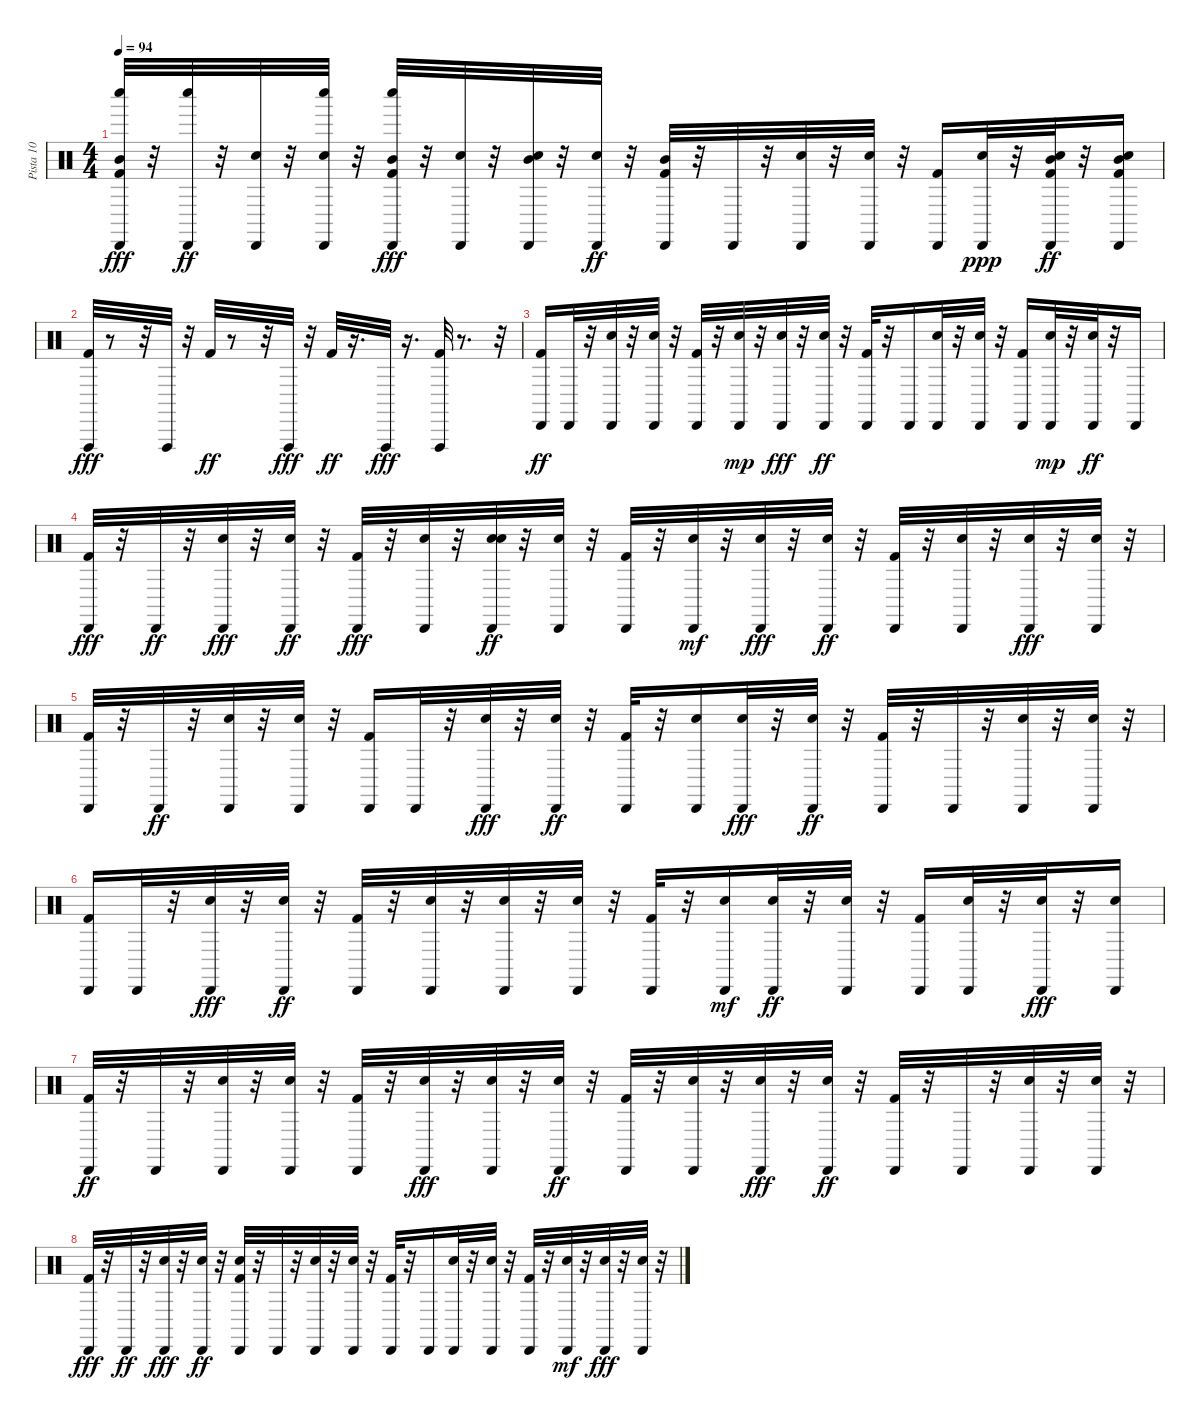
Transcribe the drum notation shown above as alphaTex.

\track ("Pista 10" "Pista 10") {instrument percussion}
\staff {score}
\articulation defaults
\ts (4 4)
\tempo 94
\clef neutral
\ks c
("Whistle low (hit)" "Cabasa (hit)" "Mid Tom (hit)" "Kick (hit) 2").32{dy fff} r.32 ("Whistle low (hit)" "Cabasa (hit)").32{dy ff} r.32 ("Snare (hit) 2" "Cabasa (hit)").32 r.32 ("Whistle low (hit)" "Electric Snare (hit)" "Cabasa (hit)").32 r.32 ("Whistle low (hit)" "Kick (hit) 2" "Mid Tom (hit)" "Cabasa (hit)").32{dy fff} r.32 ("Cabasa (hit)" "Electric Snare (hit)").32 r.32 ("Cabasa (hit)" "Mid Tom (hit)" "Snare (hit) 2").32 r.32 ("Cabasa (hit)" "Electric Snare (hit)").32{dy ff} r.32 ("Kick (hit) 2" "Mid Tom (hit)" "Cabasa (hit)").32 r.32 "Cabasa (hit)".32 r.32 ("Snare (hit) 2" "Cabasa (hit)").32 r.32 ("Cabasa (hit)" "Electric Snare (hit)").32 r.32 ("Cabasa (hit)" "Kick (hit) 2").16 ("Cabasa (hit)" "Electric Snare (hit)").32{dy ppp} r.32 ("Kick (hit) 2" "Snare (hit) 2" "Mid Tom (hit)" "Cabasa (hit)").32{dy ff} r.32 ("Kick (hit) 2" "Electric Snare (hit)" "Mid Tom (hit)" "Cabasa (hit)").16 |
("Kick (hit) 2" "Vibraslap (hit)").32{dy fff} r.8 r.32 "Vibraslap (hit)".32 r.32 "Kick (hit) 2".32{dy ff} r.8 r.32 "Vibraslap (hit)".32{dy fff} r.32 "Kick (hit) 2".32{dy ff} r.16{d} "Vibraslap (hit)".32{dy fff} r.16{d} ("Kick (hit) 2" "Vibraslap (hit)").32 r.8{d} r.32 |
("Cabasa (hit)" "Kick (hit) 2").16{dy ff} "Cabasa (hit)".32 r.32 ("Snare (hit) 2" "Cabasa (hit)").32 r.32 ("Electric Snare (hit)" "Cabasa (hit)").32 r.32 ("Kick (hit) 2" "Cabasa (hit)").32 r.32 ("Cabasa (hit)" "Electric Snare (hit)").32{dy mp} r.32 ("Cabasa (hit)" "Snare (hit) 2").32{dy fff} r.32 ("Cabasa (hit)" "Electric Snare (hit)").32{dy ff} r.32 ("Kick (hit) 2" "Cabasa (hit)").32 r.32 "Cabasa (hit)".16 ("Snare (hit) 2" "Cabasa (hit)").32 r.32 ("Cabasa (hit)" "Electric Snare (hit)").32 r.32 ("Cabasa (hit)" "Kick (hit) 2").16 ("Cabasa (hit)" "Electric Snare (hit)").32{dy mp} r.32 ("Snare (hit) 2" "Cabasa (hit)").32{dy ff} r.32 "Cabasa (hit)".16 |
("Kick (hit) 2" "Cabasa (hit)").32{dy fff} r.32 "Cabasa (hit)".32{dy ff} r.32 ("Cabasa (hit)" "Snare (hit) 2").32{dy fff} r.32 ("Cabasa (hit)" "Electric Snare (hit)").32{dy ff} r.32 ("Kick (hit) 2" "Cabasa (hit)").32{dy fff} r.32 ("Electric Snare (hit)" "Cabasa (hit)").32 r.32 ("Snare (hit) 2" "Electric Snare (hit)" "Cabasa (hit)").32{dy ff} r.32 ("Cabasa (hit)" "Electric Snare (hit)").32 r.32 ("Cabasa (hit)" "Kick (hit) 2").32 r.32 ("Cabasa (hit)" "Electric Snare (hit)").32{dy mf} r.32 ("Cabasa (hit)" "Snare (hit) 2").32{dy fff} r.32 ("Electric Snare (hit)" "Cabasa (hit)").32{dy ff} r.32 ("Kick (hit) 2" "Cabasa (hit)").32 r.32 ("Electric Snare (hit)" "Cabasa (hit)").32 r.32 ("Cabasa (hit)" "Snare (hit) 2").32{dy fff} r.32 ("Cabasa (hit)" "Snare (hit) 2").32 r.32 |
("Cabasa (hit)" "Kick (hit) 2").32 r.32 "Cabasa (hit)".32{dy ff} r.32 ("Snare (hit) 2" "Cabasa (hit)").32 r.32 ("Electric Snare (hit)" "Cabasa (hit)").32 r.32 ("Cabasa (hit)" "Kick (hit) 2").16 "Cabasa (hit)".32 r.32 ("Cabasa (hit)" "Snare (hit) 2").32{dy fff} r.32 ("Electric Snare (hit)" "Cabasa (hit)").32{dy ff} r.32 ("Kick (hit) 2" "Cabasa (hit)").32 r.32 ("Electric Snare (hit)" "Cabasa (hit)").16 ("Cabasa (hit)" "Snare (hit) 2").32{dy fff} r.32 ("Cabasa (hit)" "Electric Snare (hit)").32{dy ff} r.32 ("Cabasa (hit)" "Kick (hit) 2").32 r.32 "Cabasa (hit)".32 r.32 ("Snare (hit) 2" "Cabasa (hit)").32 r.32 ("Electric Snare (hit)" "Cabasa (hit)").32 r.32 |
("Kick (hit) 2" "Cabasa (hit)").16 "Cabasa (hit)".32 r.32 ("Cabasa (hit)" "Snare (hit) 2").32{dy fff} r.32 ("Cabasa (hit)" "Electric Snare (hit)").32{dy ff} r.32 ("Kick (hit) 2" "Cabasa (hit)").32 r.32 ("Electric Snare (hit)" "Cabasa (hit)").32 r.32 ("Snare (hit) 2" "Cabasa (hit)").32 r.32 ("Cabasa (hit)" "Electric Snare (hit)").32 r.32 ("Cabasa (hit)" "Kick (hit) 2").32 r.32 ("Cabasa (hit)" "Electric Snare (hit)").16{dy mf} ("Snare (hit) 2" "Cabasa (hit)").32{dy ff} r.32 ("Electric Snare (hit)" "Cabasa (hit)").32 r.32 ("Kick (hit) 2" "Cabasa (hit)").16 ("Cabasa (hit)" "Electric Snare (hit)").32 r.32 ("Cabasa (hit)" "Snare (hit) 2").32{dy fff} r.32 ("Cabasa (hit)" "Snare (hit) 2").16 |
("Cabasa (hit)" "Kick (hit) 2").32{dy ff} r.32 "Cabasa (hit)".32 r.32 ("Snare (hit) 2" "Cabasa (hit)").32 r.32 ("Electric Snare (hit)" "Cabasa (hit)").32 r.32 ("Cabasa (hit)" "Kick (hit) 2").32 r.32 ("Cabasa (hit)" "Electric Snare (hit)").32{dy fff} r.32 ("Cabasa (hit)" "Snare (hit) 2").32 r.32 ("Electric Snare (hit)" "Cabasa (hit)").32{dy ff} r.32 ("Kick (hit) 2" "Cabasa (hit)").32 r.32 ("Electric Snare (hit)" "Cabasa (hit)").32 r.32 ("Cabasa (hit)" "Snare (hit) 2").32{dy fff} r.32 ("Cabasa (hit)" "Electric Snare (hit)").32{dy ff} r.32 ("Cabasa (hit)" "Kick (hit) 2").32 r.32 "Cabasa (hit)".32 r.32 ("Snare (hit) 2" "Cabasa (hit)").32 r.32 ("Electric Snare (hit)" "Cabasa (hit)").32 r.32 |
("Cabasa (hit)" "Kick (hit) 2").32{dy fff} r.32 "Cabasa (hit)".32{dy ff} r.32 ("Cabasa (hit)" "Snare (hit) 2").32{dy fff} r.32 ("Electric Snare (hit)" "Cabasa (hit)").32{dy ff} r.32 ("Kick (hit) 2" "Snare (hit) 2" "Cabasa (hit)").32 r.32 "Cabasa (hit)".32 r.32 ("Snare (hit) 2" "Cabasa (hit)").32 r.32 ("Cabasa (hit)" "Electric Snare (hit)").32 r.32 ("Cabasa (hit)" "Kick (hit) 2").32 r.32 "Cabasa (hit)".16 ("Snare (hit) 2" "Cabasa (hit)").32 r.32 ("Electric Snare (hit)" "Cabasa (hit)").32 r.32 ("Kick (hit) 2" "Cabasa (hit)").32 r.32 ("Cabasa (hit)" "Electric Snare (hit)").32{dy mf} r.32 ("Cabasa (hit)" "Snare (hit) 2").32{dy fff} r.32 ("Cabasa (hit)" "Snare (hit) 2").32 r.32
